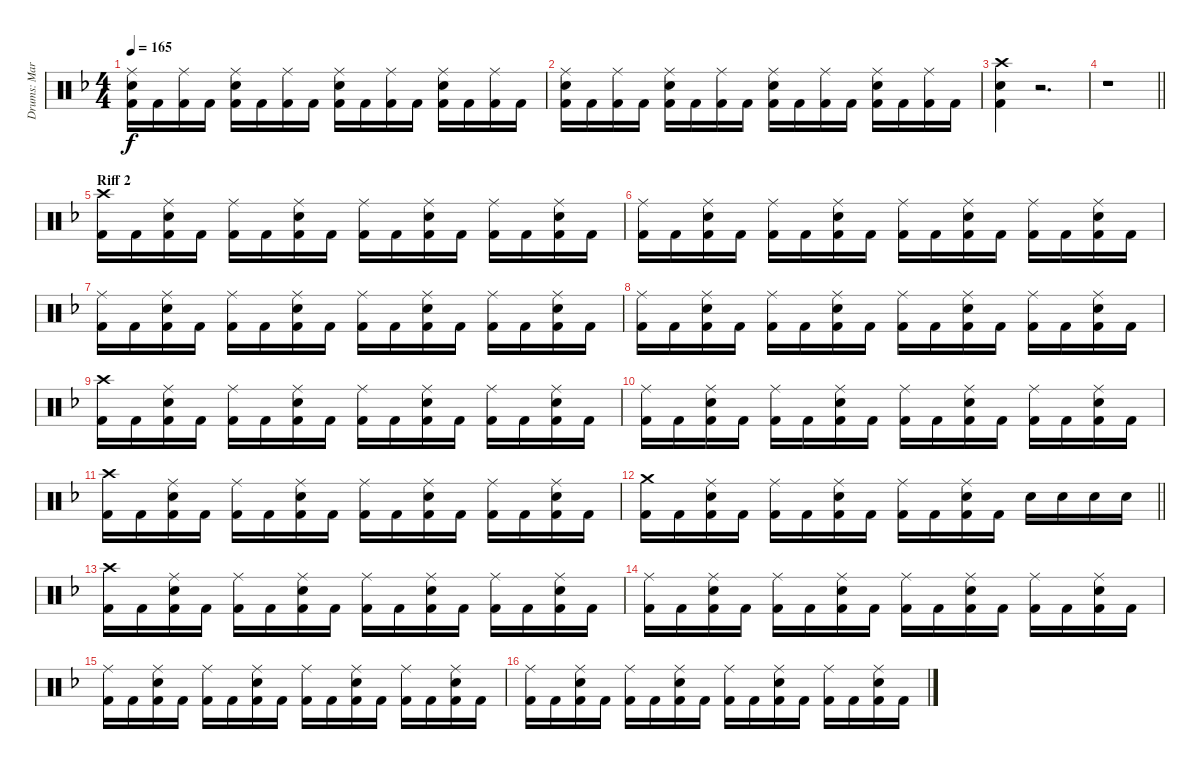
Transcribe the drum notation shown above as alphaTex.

\track ("Drums: Martin Herzinger" "Drums: Mar") {instrument percussion}
\staff {score}
\articulation defaults
\ts (4 4)
\tempo 165
\clef neutral
\ks dminor
("Ride (middle)" "Snare (hit) 2" "Kick (hit) 2").16{dy f} "Kick (hit) 2".16 ("Ride (middle)" "Kick (hit) 2").16 "Kick (hit) 2".16 ("Ride (middle)" "Snare (hit) 2" "Kick (hit) 2").16 "Kick (hit) 2".16 ("Ride (middle)" "Kick (hit) 2").16 "Kick (hit) 2".16 ("Ride (middle)" "Snare (hit) 2" "Kick (hit) 2").16 "Kick (hit) 2".16 ("Ride (middle)" "Kick (hit) 2").16 "Kick (hit) 2".16 ("Ride (middle)" "Snare (hit) 2" "Kick (hit) 2").16 "Kick (hit) 2".16 ("Ride (middle)" "Kick (hit) 2").16 "Kick (hit) 2".16 |
("Ride (middle)" "Snare (hit) 2" "Kick (hit) 2").16 "Kick (hit) 2".16 ("Ride (middle)" "Kick (hit) 2").16 "Kick (hit) 2".16 ("Ride (middle)" "Snare (hit) 2" "Kick (hit) 2").16 "Kick (hit) 2".16 ("Ride (middle)" "Kick (hit) 2").16 "Kick (hit) 2".16 ("Ride (middle)" "Snare (hit) 2" "Kick (hit) 2").16 "Kick (hit) 2".16 ("Ride (middle)" "Kick (hit) 2").16 "Kick (hit) 2".16 ("Ride (middle)" "Snare (hit) 2" "Kick (hit) 2").16 "Kick (hit) 2".16 ("Ride (middle)" "Kick (hit) 2").16 "Kick (hit) 2".16 |
("Crash high (hit)" "Snare (hit) 2" "Kick (hit) 2").4 r.2{d} |
\barLineRight lightlight
r.1 |
\section ("" "Riff 2")
("Crash high (hit)" "Kick (hit) 2").16 "Kick (hit) 2".16 ("Ride (middle)" "Snare (hit) 2" "Kick (hit) 2").16 "Kick (hit) 2".16 ("Ride (middle)" "Kick (hit) 2").16 "Kick (hit) 2".16 ("Ride (middle)" "Snare (hit) 2" "Kick (hit) 2").16 "Kick (hit) 2".16 ("Ride (middle)" "Kick (hit) 2").16 "Kick (hit) 2".16 ("Ride (middle)" "Snare (hit) 2" "Kick (hit) 2").16 "Kick (hit) 2".16 ("Ride (middle)" "Kick (hit) 2").16 "Kick (hit) 2".16 ("Ride (middle)" "Snare (hit) 2" "Kick (hit) 2").16 "Kick (hit) 2".16 |
("Ride (middle)" "Kick (hit) 2").16 "Kick (hit) 2".16 ("Ride (middle)" "Snare (hit) 2" "Kick (hit) 2").16 "Kick (hit) 2".16 ("Ride (middle)" "Kick (hit) 2").16 "Kick (hit) 2".16 ("Ride (middle)" "Snare (hit) 2" "Kick (hit) 2").16 "Kick (hit) 2".16 ("Ride (middle)" "Kick (hit) 2").16 "Kick (hit) 2".16 ("Ride (middle)" "Snare (hit) 2" "Kick (hit) 2").16 "Kick (hit) 2".16 ("Ride (middle)" "Kick (hit) 2").16 "Kick (hit) 2".16 ("Ride (middle)" "Snare (hit) 2" "Kick (hit) 2").16 "Kick (hit) 2".16 |
("Ride (middle)" "Kick (hit) 2").16 "Kick (hit) 2".16 ("Ride (middle)" "Snare (hit) 2" "Kick (hit) 2").16 "Kick (hit) 2".16 ("Ride (middle)" "Kick (hit) 2").16 "Kick (hit) 2".16 ("Ride (middle)" "Snare (hit) 2" "Kick (hit) 2").16 "Kick (hit) 2".16 ("Ride (middle)" "Kick (hit) 2").16 "Kick (hit) 2".16 ("Ride (middle)" "Snare (hit) 2" "Kick (hit) 2").16 "Kick (hit) 2".16 ("Ride (middle)" "Kick (hit) 2").16 "Kick (hit) 2".16 ("Ride (middle)" "Snare (hit) 2" "Kick (hit) 2").16 "Kick (hit) 2".16 |
("Ride (middle)" "Kick (hit) 2").16 "Kick (hit) 2".16 ("Ride (middle)" "Snare (hit) 2" "Kick (hit) 2").16 "Kick (hit) 2".16 ("Ride (middle)" "Kick (hit) 2").16 "Kick (hit) 2".16 ("Ride (middle)" "Snare (hit) 2" "Kick (hit) 2").16 "Kick (hit) 2".16 ("Ride (middle)" "Kick (hit) 2").16 "Kick (hit) 2".16 ("Ride (middle)" "Snare (hit) 2" "Kick (hit) 2").16 "Kick (hit) 2".16 ("Ride (middle)" "Kick (hit) 2").16 "Kick (hit) 2".16 ("Ride (middle)" "Snare (hit) 2" "Kick (hit) 2").16 "Kick (hit) 2".16 |
("Crash high (hit)" "Kick (hit) 2").16 "Kick (hit) 2".16 ("Ride (middle)" "Snare (hit) 2" "Kick (hit) 2").16 "Kick (hit) 2".16 ("Ride (middle)" "Kick (hit) 2").16 "Kick (hit) 2".16 ("Ride (middle)" "Snare (hit) 2" "Kick (hit) 2").16 "Kick (hit) 2".16 ("Ride (middle)" "Kick (hit) 2").16 "Kick (hit) 2".16 ("Ride (middle)" "Snare (hit) 2" "Kick (hit) 2").16 "Kick (hit) 2".16 ("Ride (middle)" "Kick (hit) 2").16 "Kick (hit) 2".16 ("Ride (middle)" "Snare (hit) 2" "Kick (hit) 2").16 "Kick (hit) 2".16 |
("Ride (middle)" "Kick (hit) 2").16 "Kick (hit) 2".16 ("Ride (middle)" "Snare (hit) 2" "Kick (hit) 2").16 "Kick (hit) 2".16 ("Ride (middle)" "Kick (hit) 2").16 "Kick (hit) 2".16 ("Ride (middle)" "Snare (hit) 2" "Kick (hit) 2").16 "Kick (hit) 2".16 ("Ride (middle)" "Kick (hit) 2").16 "Kick (hit) 2".16 ("Ride (middle)" "Snare (hit) 2" "Kick (hit) 2").16 "Kick (hit) 2".16 ("Ride (middle)" "Kick (hit) 2").16 "Kick (hit) 2".16 ("Ride (middle)" "Snare (hit) 2" "Kick (hit) 2").16 "Kick (hit) 2".16 |
("Crash high (hit)" "Kick (hit) 2").16 "Kick (hit) 2".16 ("Ride (middle)" "Snare (hit) 2" "Kick (hit) 2").16 "Kick (hit) 2".16 ("Ride (middle)" "Kick (hit) 2").16 "Kick (hit) 2".16 ("Ride (middle)" "Snare (hit) 2" "Kick (hit) 2").16 "Kick (hit) 2".16 ("Ride (middle)" "Kick (hit) 2").16 "Kick (hit) 2".16 ("Ride (middle)" "Snare (hit) 2" "Kick (hit) 2").16 "Kick (hit) 2".16 ("Ride (middle)" "Kick (hit) 2").16 "Kick (hit) 2".16 ("Ride (middle)" "Snare (hit) 2" "Kick (hit) 2").16 "Kick (hit) 2".16 |
\barLineRight lightlight
("Crash medium (hit)" "Kick (hit) 2").16 "Kick (hit) 2".16 ("Ride (middle)" "Snare (hit) 2" "Kick (hit) 2").16 "Kick (hit) 2".16 ("Ride (middle)" "Kick (hit) 2").16 "Kick (hit) 2".16 ("Ride (middle)" "Snare (hit) 2" "Kick (hit) 2").16 "Kick (hit) 2".16 ("Ride (middle)" "Kick (hit) 2").16 "Kick (hit) 2".16 ("Ride (middle)" "Snare (hit) 2" "Kick (hit) 2").16 "Kick (hit) 2".16 "Snare (hit) 2".16 "Snare (hit) 2".16 "Snare (hit) 2".16 "Snare (hit) 2".16 |
("Crash high (hit)" "Kick (hit) 2").16 "Kick (hit) 2".16 ("Ride (middle)" "Snare (hit) 2" "Kick (hit) 2").16 "Kick (hit) 2".16 ("Ride (middle)" "Kick (hit) 2").16 "Kick (hit) 2".16 ("Ride (middle)" "Snare (hit) 2" "Kick (hit) 2").16 "Kick (hit) 2".16 ("Ride (middle)" "Kick (hit) 2").16 "Kick (hit) 2".16 ("Ride (middle)" "Snare (hit) 2" "Kick (hit) 2").16 "Kick (hit) 2".16 ("Ride (middle)" "Kick (hit) 2").16 "Kick (hit) 2".16 ("Ride (middle)" "Snare (hit) 2" "Kick (hit) 2").16 "Kick (hit) 2".16 |
("Ride (middle)" "Kick (hit) 2").16 "Kick (hit) 2".16 ("Ride (middle)" "Snare (hit) 2" "Kick (hit) 2").16 "Kick (hit) 2".16 ("Ride (middle)" "Kick (hit) 2").16 "Kick (hit) 2".16 ("Ride (middle)" "Snare (hit) 2" "Kick (hit) 2").16 "Kick (hit) 2".16 ("Ride (middle)" "Kick (hit) 2").16 "Kick (hit) 2".16 ("Ride (middle)" "Snare (hit) 2" "Kick (hit) 2").16 "Kick (hit) 2".16 ("Ride (middle)" "Kick (hit) 2").16 "Kick (hit) 2".16 ("Ride (middle)" "Snare (hit) 2" "Kick (hit) 2").16 "Kick (hit) 2".16 |
("Ride (middle)" "Kick (hit) 2").16 "Kick (hit) 2".16 ("Ride (middle)" "Snare (hit) 2" "Kick (hit) 2").16 "Kick (hit) 2".16 ("Ride (middle)" "Kick (hit) 2").16 "Kick (hit) 2".16 ("Ride (middle)" "Snare (hit) 2" "Kick (hit) 2").16 "Kick (hit) 2".16 ("Ride (middle)" "Kick (hit) 2").16 "Kick (hit) 2".16 ("Ride (middle)" "Snare (hit) 2" "Kick (hit) 2").16 "Kick (hit) 2".16 ("Ride (middle)" "Kick (hit) 2").16 "Kick (hit) 2".16 ("Ride (middle)" "Snare (hit) 2" "Kick (hit) 2").16 "Kick (hit) 2".16 |
("Ride (middle)" "Kick (hit) 2").16 "Kick (hit) 2".16 ("Ride (middle)" "Snare (hit) 2" "Kick (hit) 2").16 "Kick (hit) 2".16 ("Ride (middle)" "Kick (hit) 2").16 "Kick (hit) 2".16 ("Ride (middle)" "Snare (hit) 2" "Kick (hit) 2").16 "Kick (hit) 2".16 ("Ride (middle)" "Kick (hit) 2").16 "Kick (hit) 2".16 ("Ride (middle)" "Snare (hit) 2" "Kick (hit) 2").16 "Kick (hit) 2".16 ("Ride (middle)" "Kick (hit) 2").16 "Kick (hit) 2".16 ("Ride (middle)" "Snare (hit) 2" "Kick (hit) 2").16 "Kick (hit) 2".16
